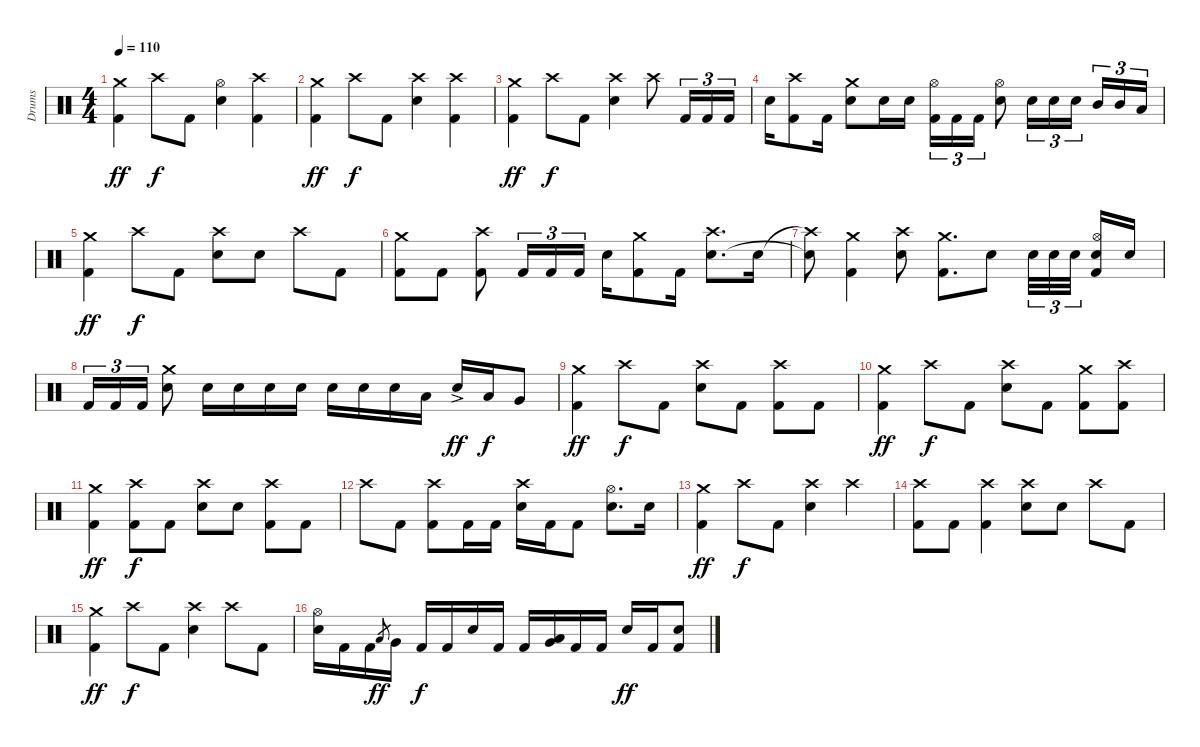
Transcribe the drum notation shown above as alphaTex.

\track ("Drums" "Drums") {instrument percussion}
\staff {score}
\articulation defaults
\ts (4 4)
\tempo 110
\clef neutral
\ks c
("Crash medium (hit)" "Kick (hit) 2").4{dy ff} "Crash high (hit)".8{dy f} "Kick (hit) 2".8 ("Hi-Hat (open)" "Electric Snare (hit)").4 ("Crash high (hit)" "Kick (hit) 2").4 |
("Crash medium (hit)" "Kick (hit) 2").4{dy ff} "Crash high (hit)".8{dy f} "Kick (hit) 2".8 ("Crash high (hit)" "Electric Snare (hit)").4 ("Crash high (hit)" "Kick (hit) 2").4 |
("Crash medium (hit)" "Kick (hit) 2").4{dy ff} "Crash high (hit)".8{dy f} "Kick (hit) 2".8 ("Crash high (hit)" "Electric Snare (hit)").4 "Crash high (hit)".8 "Kick (hit) 2".16{tu (3 2)} "Kick (hit) 2".16{tu (3 2)} "Kick (hit) 2".16{tu (3 2)} |
"Electric Snare (hit)".16 ("Crash high (hit)" "Kick (hit) 2").8 "Kick (hit) 2".16 ("Crash medium (hit)" "Electric Snare (hit)").8 "Electric Snare (hit)".16 "Electric Snare (hit)".16 ("Hi-Hat (open)" "Kick (hit) 2").16{tu (3 2)} "Kick (hit) 2".16{tu (3 2)} "Kick (hit) 2".16{tu (3 2)} ("Hi-Hat (open)" "Electric Snare (hit)").8 "Electric Snare (hit)".16{tu (3 2)} "Electric Snare (hit)".16{tu (3 2)} "Electric Snare (hit)".16{tu (3 2) beam splitsecondary} "Mid Tom (hit)".16{tu (3 2)} "Mid Tom (hit)".16{tu (3 2)} "Low Tom (hit)".16{tu (3 2)} |
("Crash medium (hit)" "Kick (hit) 2").4{dy ff} "Crash high (hit)".8{dy f} "Kick (hit) 2".8 ("Crash high (hit)" "Electric Snare (hit)").8 "Electric Snare (hit)".8 "Crash high (hit)".8 "Kick (hit) 2".8 |
("Crash medium (hit)" "Kick (hit) 2").8 "Kick (hit) 2".8 ("Crash high (hit)" "Kick (hit) 2").8 "Kick (hit) 2".16{tu (3 2)} "Kick (hit) 2".16{tu (3 2)} "Kick (hit) 2".16{tu (3 2)} "Electric Snare (hit)".16 ("Crash medium (hit)" "Kick (hit) 2").8 "Kick (hit) 2".16 ("Crash high (hit)" "Electric Snare (hit)").8{d} "Electric Snare (hit)".16 |
("Crash high (hit)"{t} "Electric Snare (hit)"{t}).8 ("Crash medium (hit)" "Kick (hit) 2").4 ("Crash high (hit)" "Electric Snare (hit)").8 ("Crash medium (hit)" "Kick (hit) 2").8{d} "Electric Snare (hit)".8 "Electric Snare (hit)".32{tu (3 2)} "Electric Snare (hit)".32{tu (3 2)} "Electric Snare (hit)".32{tu (3 2) beam splitsecondary} ("Hi-Hat (open)" "Electric Snare (hit)" "Kick (hit) 2").16 "Electric Snare (hit)".16 |
"Kick (hit) 2".16{tu (3 2)} "Kick (hit) 2".16{tu (3 2)} "Kick (hit) 2".16{tu (3 2)} ("Crash medium (hit)" "Electric Snare (hit)").8 "Electric Snare (hit)".16 "Electric Snare (hit)".16 "Electric Snare (hit)".16 "Electric Snare (hit)".16 "Electric Snare (hit)".16 "Electric Snare (hit)".16 "Electric Snare (hit)".16 "Low Tom (hit)".16 "Electric Snare (hit)"{ac}.16{dy ff} "Low Tom (hit)".16{dy f} "Very Low Tom (hit)".8 |
("Crash medium (hit)" "Kick (hit) 2").4{dy ff} "Crash high (hit)".8{dy f} "Kick (hit) 2".8 ("Crash high (hit)" "Electric Snare (hit)").8 "Kick (hit) 2".8 ("Crash high (hit)" "Kick (hit) 2").8 "Kick (hit) 2".8 |
("Crash medium (hit)" "Kick (hit) 2").4{dy ff} "Crash high (hit)".8{dy f} "Kick (hit) 2".8 ("Crash high (hit)" "Electric Snare (hit)").8 "Kick (hit) 2".8 ("Crash medium (hit)" "Kick (hit) 2").8 ("Crash high (hit)" "Kick (hit) 2").8 |
("Crash medium (hit)" "Kick (hit) 2").4{dy ff} ("Crash high (hit)" "Kick (hit) 2").8{dy f} "Kick (hit) 2".8 ("Crash high (hit)" "Electric Snare (hit)").8 "Electric Snare (hit)".8 ("Crash high (hit)" "Kick (hit) 2").8 "Kick (hit) 2".8 |
"Crash high (hit)".8 "Kick (hit) 2".8 ("Crash high (hit)" "Kick (hit) 2").8 "Kick (hit) 2".16 "Kick (hit) 2".16 ("Crash high (hit)" "Electric Snare (hit)").16 "Kick (hit) 2".16 "Kick (hit) 2".8 ("Hi-Hat (open)" "Electric Snare (hit)").8{d} "Electric Snare (hit)".16 |
("Crash medium (hit)" "Kick (hit) 2").4{dy ff} "Crash high (hit)".8{dy f} "Kick (hit) 2".8 ("Crash high (hit)" "Electric Snare (hit)").4 "Crash high (hit)".4 |
("Crash high (hit)" "Kick (hit) 2").8 "Kick (hit) 2".8 ("Crash high (hit)" "Kick (hit) 2").4 ("Crash high (hit)" "Electric Snare (hit)").8 "Electric Snare (hit)".8 "Crash high (hit)".8 "Kick (hit) 2".8 |
("Crash medium (hit)" "Kick (hit) 2").4{dy ff} "Crash high (hit)".8{dy f} "Kick (hit) 2".8 ("Crash high (hit)" "Electric Snare (hit)").4 "Crash high (hit)".8 "Kick (hit) 2".8 |
("Hi-Hat (open)" "Electric Snare (hit)").16 "Kick (hit) 2".16 "Kick (hit) 2".16 "Low Tom (hit)".8{gr dy ff} "Very Low Tom (hit)".16 "Kick (hit) 2".16{dy f} "Kick (hit) 2".16 "Electric Snare (hit)".16 "Kick (hit) 2".16 "Kick (hit) 2".16 ("Low Tom (hit)" "Very Low Tom (hit)").16 "Kick (hit) 2".16 "Kick (hit) 2".16 "Electric Snare (hit)".16{dy ff} "Kick (hit) 2".16 ("Electric Snare (hit)" "Kick (hit) 2").8
